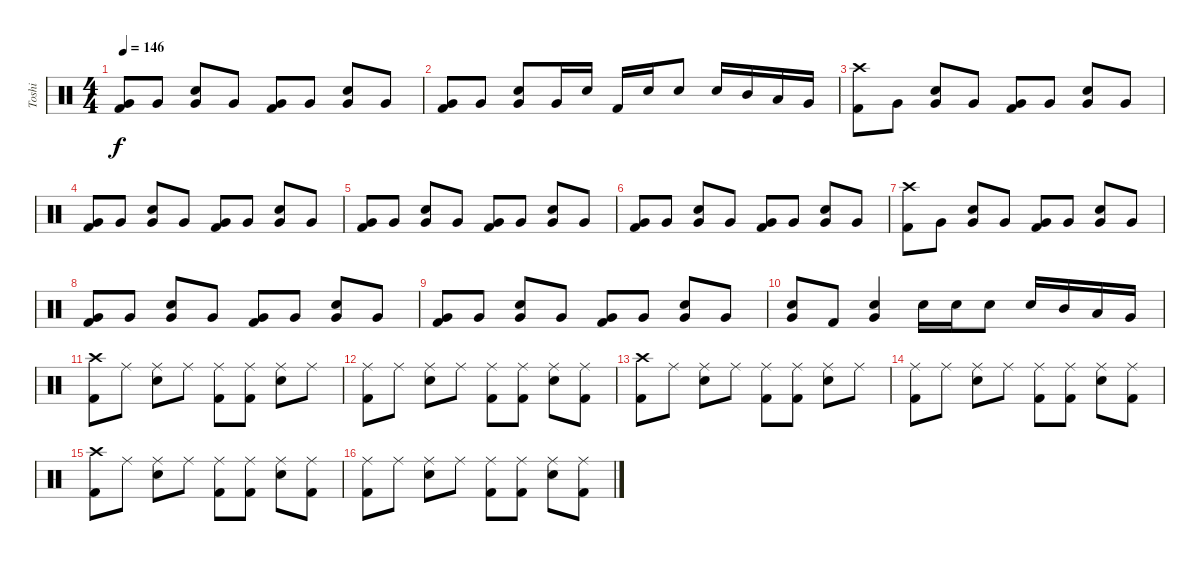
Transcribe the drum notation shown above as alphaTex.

\track ("Toshi" "Toshi") {instrument percussion}
\staff {score}
\articulation defaults
\ts (4 4)
\tempo 146
\clef neutral
\ks c
("Very Low Tom (hit)" "Kick (hit) 2").8{dy f} "Very Low Tom (hit)".8 ("Very Low Tom (hit)" "Electric Snare (hit)").8 "Very Low Tom (hit)".8 ("Very Low Tom (hit)" "Kick (hit) 2").8 "Very Low Tom (hit)".8 ("Very Low Tom (hit)" "Electric Snare (hit)").8 "Very Low Tom (hit)".8 |
("Very Low Tom (hit)" "Kick (hit) 2").8 "Very Low Tom (hit)".8 ("Very Low Tom (hit)" "Electric Snare (hit)").8 "Very Low Tom (hit)".16 "Electric Snare (hit)".16 "Kick (hit) 2".16 "Electric Snare (hit)".16 "Electric Snare (hit)".8 "Electric Snare (hit)".16 "Mid Tom (hit)".16 "Low Tom (hit)".16 "Very Low Tom (hit)".16 |
("Crash high (hit)" "Kick (hit) 2").8 "Very Low Tom (hit)".8 ("Very Low Tom (hit)" "Electric Snare (hit)").8 "Very Low Tom (hit)".8 ("Very Low Tom (hit)" "Kick (hit) 2").8 "Very Low Tom (hit)".8 ("Very Low Tom (hit)" "Electric Snare (hit)").8 "Very Low Tom (hit)".8 |
("Very Low Tom (hit)" "Kick (hit) 2").8 "Very Low Tom (hit)".8 ("Very Low Tom (hit)" "Electric Snare (hit)").8 "Very Low Tom (hit)".8 ("Very Low Tom (hit)" "Kick (hit) 2").8 "Very Low Tom (hit)".8 ("Very Low Tom (hit)" "Electric Snare (hit)").8 "Very Low Tom (hit)".8 |
("Very Low Tom (hit)" "Kick (hit) 2").8 "Very Low Tom (hit)".8 ("Very Low Tom (hit)" "Electric Snare (hit)").8 "Very Low Tom (hit)".8 ("Very Low Tom (hit)" "Kick (hit) 2").8 "Very Low Tom (hit)".8 ("Very Low Tom (hit)" "Electric Snare (hit)").8 "Very Low Tom (hit)".8 |
("Very Low Tom (hit)" "Kick (hit) 2").8 "Very Low Tom (hit)".8 ("Very Low Tom (hit)" "Electric Snare (hit)").8 "Very Low Tom (hit)".8 ("Very Low Tom (hit)" "Kick (hit) 2").8 "Very Low Tom (hit)".8 ("Very Low Tom (hit)" "Electric Snare (hit)").8 "Very Low Tom (hit)".8 |
("Crash high (hit)" "Kick (hit) 2").8 "Very Low Tom (hit)".8 ("Very Low Tom (hit)" "Electric Snare (hit)").8 "Very Low Tom (hit)".8 ("Very Low Tom (hit)" "Kick (hit) 2").8 "Very Low Tom (hit)".8 ("Very Low Tom (hit)" "Electric Snare (hit)").8 "Very Low Tom (hit)".8 |
("Very Low Tom (hit)" "Kick (hit) 2").8 "Very Low Tom (hit)".8 ("Very Low Tom (hit)" "Electric Snare (hit)").8 "Very Low Tom (hit)".8 ("Very Low Tom (hit)" "Kick (hit) 2").8 "Very Low Tom (hit)".8 ("Very Low Tom (hit)" "Electric Snare (hit)").8 "Very Low Tom (hit)".8 |
("Very Low Tom (hit)" "Kick (hit) 2").8 "Very Low Tom (hit)".8 ("Very Low Tom (hit)" "Electric Snare (hit)").8 "Very Low Tom (hit)".8 ("Very Low Tom (hit)" "Kick (hit) 2").8 "Very Low Tom (hit)".8 ("Very Low Tom (hit)" "Electric Snare (hit)").8 "Very Low Tom (hit)".8 |
("Very Low Tom (hit)" "Electric Snare (hit)").8 "Kick (hit) 2".8 ("Very Low Tom (hit)" "Electric Snare (hit)").4 "Electric Snare (hit)".16 "Electric Snare (hit)".16 "Electric Snare (hit)".8 "Electric Snare (hit)".16 "Mid Tom (hit)".16 "Low Tom (hit)".16 "Very Low Tom (hit)".16 |
("Crash high (hit)" "Kick (hit) 2").8 "Ride (middle)".8 ("Ride (middle)" "Electric Snare (hit)").8 "Ride (middle)".8 ("Ride (middle)" "Kick (hit) 2").8 ("Ride (middle)" "Kick (hit) 2").8 ("Ride (middle)" "Electric Snare (hit)").8 "Ride (middle)".8 |
("Ride (middle)" "Kick (hit) 2").8 "Ride (middle)".8 ("Ride (middle)" "Electric Snare (hit)").8 "Ride (middle)".8 ("Ride (middle)" "Kick (hit) 2").8 ("Ride (middle)" "Kick (hit) 2").8 ("Ride (middle)" "Electric Snare (hit)").8 ("Ride (middle)" "Kick (hit) 2").8 |
("Crash high (hit)" "Kick (hit) 2").8 "Ride (middle)".8 ("Ride (middle)" "Electric Snare (hit)").8 "Ride (middle)".8 ("Ride (middle)" "Kick (hit) 2").8 ("Ride (middle)" "Kick (hit) 2").8 ("Ride (middle)" "Electric Snare (hit)").8 "Ride (middle)".8 |
("Ride (middle)" "Kick (hit) 2").8 "Ride (middle)".8 ("Ride (middle)" "Electric Snare (hit)").8 "Ride (middle)".8 ("Ride (middle)" "Kick (hit) 2").8 ("Ride (middle)" "Kick (hit) 2").8 ("Ride (middle)" "Electric Snare (hit)").8 ("Ride (middle)" "Kick (hit) 2").8 |
("Crash high (hit)" "Kick (hit) 2").8 "Ride (middle)".8 ("Ride (middle)" "Electric Snare (hit)").8 "Ride (middle)".8 ("Ride (middle)" "Kick (hit) 2").8 ("Ride (middle)" "Kick (hit) 2").8 ("Ride (middle)" "Electric Snare (hit)").8 ("Ride (middle)" "Kick (hit) 2").8 |
("Ride (middle)" "Kick (hit) 2").8 "Ride (middle)".8 ("Ride (middle)" "Electric Snare (hit)").8 "Ride (middle)".8 ("Ride (middle)" "Kick (hit) 2").8 ("Ride (middle)" "Kick (hit) 2").8 ("Ride (middle)" "Electric Snare (hit)").8 ("Ride (middle)" "Kick (hit) 2").8
